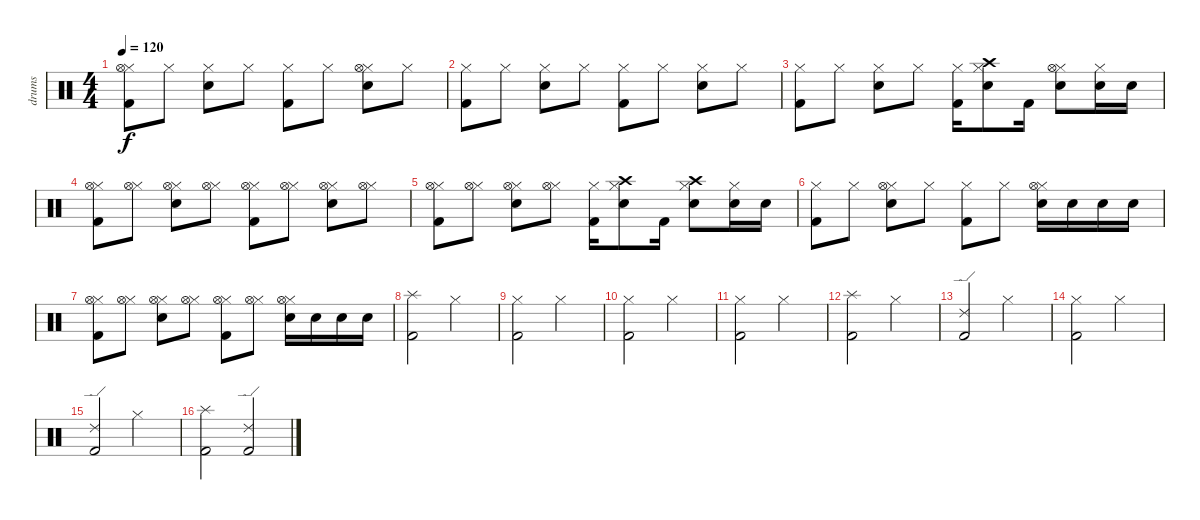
\track ("drums" "drums") {instrument percussion}
\staff {score}
\articulation defaults
\ts (4 4)
\tempo 120
\clef neutral
\ks c
("Hi-Hat (closed)" "Hi-Hat (open)" "Kick (hit) 2").8{dy f} "Hi-Hat (closed)".8 ("Hi-Hat (closed)" "Electric Snare (hit)").8 "Hi-Hat (closed)".8 ("Hi-Hat (closed)" "Kick (hit) 2").8 "Hi-Hat (closed)".8 ("Hi-Hat (closed)" "Hi-Hat (open)" "Electric Snare (hit)").8 "Hi-Hat (closed)".8 |
("Hi-Hat (closed)" "Kick (hit) 2").8 "Hi-Hat (closed)".8 ("Hi-Hat (closed)" "Electric Snare (hit)").8 "Hi-Hat (closed)".8 ("Hi-Hat (closed)" "Kick (hit) 2").8 "Hi-Hat (closed)".8 ("Hi-Hat (closed)" "Electric Snare (hit)").8 "Hi-Hat (closed)".8 |
("Hi-Hat (closed)" "Kick (hit) 2").8 "Hi-Hat (closed)".8 ("Hi-Hat (closed)" "Electric Snare (hit)").8 "Hi-Hat (closed)".8 ("Hi-Hat (closed)" "Kick (hit) 2").16 ("Hi-Hat (closed)" "Crash high (hit)" "Electric Snare (hit)").8 "Kick (hit) 2".16 ("Hi-Hat (closed)" "Hi-Hat (open)" "Electric Snare (hit)").8 ("Hi-Hat (closed)" "Electric Snare (hit)").16 "Electric Snare (hit)".16 |
("Hi-Hat (closed)" "Hi-Hat (open)" "Kick (hit) 2").8 ("Hi-Hat (closed)" "Hi-Hat (open)").8 ("Hi-Hat (closed)" "Hi-Hat (open)" "Electric Snare (hit)").8 ("Hi-Hat (closed)" "Hi-Hat (open)").8 ("Hi-Hat (closed)" "Hi-Hat (open)" "Kick (hit) 2").8 ("Hi-Hat (closed)" "Hi-Hat (open)").8 ("Hi-Hat (closed)" "Hi-Hat (open)" "Electric Snare (hit)").8 ("Hi-Hat (closed)" "Hi-Hat (open)").8 |
("Hi-Hat (closed)" "Hi-Hat (open)" "Kick (hit) 2").8 ("Hi-Hat (closed)" "Hi-Hat (open)").8 ("Hi-Hat (closed)" "Hi-Hat (open)" "Electric Snare (hit)").8 ("Hi-Hat (closed)" "Hi-Hat (open)").8 ("Hi-Hat (closed)" "Kick (hit) 2").16 ("Hi-Hat (closed)" "Crash high (hit)" "Electric Snare (hit)").8 "Kick (hit) 2".16 ("Hi-Hat (closed)" "Crash high (hit)" "Electric Snare (hit)").8 ("Hi-Hat (closed)" "Electric Snare (hit)").16 "Electric Snare (hit)".16 |
("Hi-Hat (closed)" "Kick (hit) 2").8 "Hi-Hat (closed)".8 ("Hi-Hat (closed)" "Hi-Hat (open)" "Electric Snare (hit)").8 "Hi-Hat (closed)".8 ("Hi-Hat (closed)" "Kick (hit) 2").8 "Hi-Hat (closed)".8 ("Hi-Hat (closed)" "Hi-Hat (open)" "Electric Snare (hit)").16 "Electric Snare (hit)".16 "Electric Snare (hit)".16 "Electric Snare (hit)".16 |
("Hi-Hat (closed)" "Hi-Hat (open)" "Kick (hit) 2").8 ("Hi-Hat (closed)" "Hi-Hat (open)").8 ("Hi-Hat (closed)" "Hi-Hat (open)" "Electric Snare (hit)").8 ("Hi-Hat (closed)" "Hi-Hat (open)").8 ("Hi-Hat (closed)" "Hi-Hat (open)" "Kick (hit) 2").8 ("Hi-Hat (closed)" "Hi-Hat (open)").8 ("Hi-Hat (closed)" "Hi-Hat (open)" "Electric Snare (hit)").16 "Electric Snare (hit)".16 "Electric Snare (hit)".16 "Electric Snare (hit)".16 |
("Splash (hit)" "Kick (hit) 2").2 "Hi-Hat (closed)".2 |
("Hi-Hat (closed)" "Kick (hit) 2").2 "Hi-Hat (closed)".2 |
("Hi-Hat (closed)" "Kick (hit) 2").2 "Hi-Hat (closed)".2 |
("Hi-Hat (closed)" "Kick (hit) 2").2 "Hi-Hat (closed)".2 |
("Splash (hit)" "Kick (hit) 2").2 "Hi-Hat (closed)".2 |
("Ride (edge) 2" "Kick (hit) 2").2 "Hi-Hat (closed)".2 |
("Hi-Hat (closed)" "Kick (hit) 2").2 "Hi-Hat (closed)".2 |
("Ride (edge) 2" "Kick (hit) 2").2 "Hi-Hat (closed)".2 |
("Splash (hit)" "Kick (hit) 2").2 ("Ride (edge) 2" "Kick (hit) 2").2
